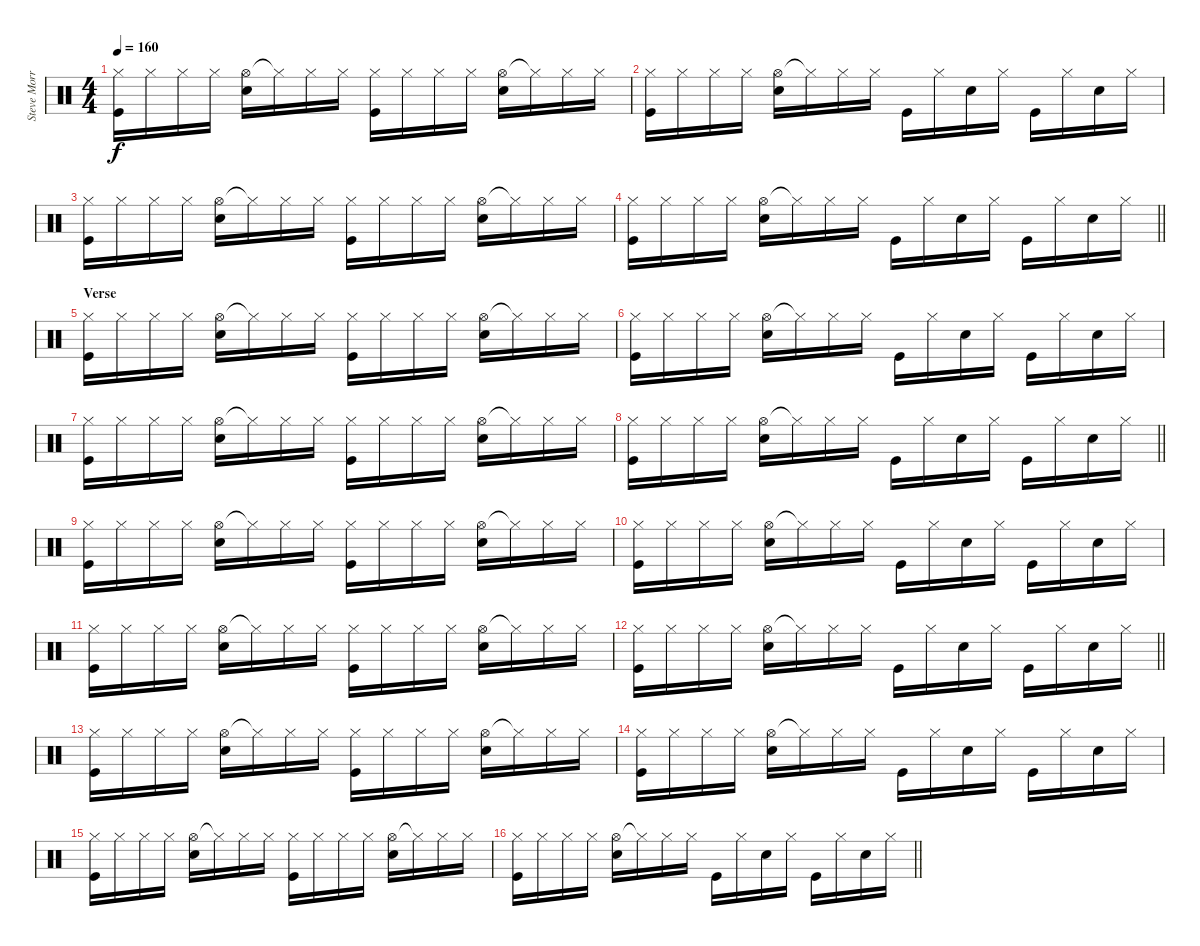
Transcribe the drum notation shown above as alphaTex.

\track ("Steve Morris" "Steve Morr") {instrument percussion}
\staff {score}
\articulation defaults
\ts (4 4)
\tempo 160
\clef neutral
\ks c
("Hi-Hat (closed)" "Kick (hit)").16{dy f} "Hi-Hat (closed)".16 "Hi-Hat (closed)".16 "Hi-Hat (closed)".16 ("Hi-Hat (open)" "Electric Snare (hit)").16 "Hi-Hat (closed)"{t}.16 "Hi-Hat (closed)".16 "Hi-Hat (closed)".16 ("Hi-Hat (closed)" "Kick (hit)").16 "Hi-Hat (closed)".16 "Hi-Hat (closed)".16 "Hi-Hat (closed)".16 ("Hi-Hat (open)" "Electric Snare (hit)").16 "Hi-Hat (closed)"{t}.16 "Hi-Hat (closed)".16 "Hi-Hat (closed)".16 |
("Hi-Hat (closed)" "Kick (hit)").16 "Hi-Hat (closed)".16 "Hi-Hat (closed)".16 "Hi-Hat (closed)".16 ("Hi-Hat (open)" "Electric Snare (hit)").16 "Hi-Hat (closed)"{t}.16 "Hi-Hat (closed)".16 "Hi-Hat (closed)".16 "Kick (hit)".16 "Hi-Hat (closed)".16 "Electric Snare (hit)".16 "Hi-Hat (closed)".16 "Kick (hit)".16 "Hi-Hat (closed)".16 "Electric Snare (hit)".16 "Hi-Hat (closed)".16 |
("Hi-Hat (closed)" "Kick (hit)").16 "Hi-Hat (closed)".16 "Hi-Hat (closed)".16 "Hi-Hat (closed)".16 ("Hi-Hat (open)" "Electric Snare (hit)").16 "Hi-Hat (closed)"{t}.16 "Hi-Hat (closed)".16 "Hi-Hat (closed)".16 ("Hi-Hat (closed)" "Kick (hit)").16 "Hi-Hat (closed)".16 "Hi-Hat (closed)".16 "Hi-Hat (closed)".16 ("Hi-Hat (open)" "Electric Snare (hit)").16 "Hi-Hat (closed)"{t}.16 "Hi-Hat (closed)".16 "Hi-Hat (closed)".16 |
\barLineRight lightlight
("Hi-Hat (closed)" "Kick (hit)").16 "Hi-Hat (closed)".16 "Hi-Hat (closed)".16 "Hi-Hat (closed)".16 ("Hi-Hat (open)" "Electric Snare (hit)").16 "Hi-Hat (closed)"{t}.16 "Hi-Hat (closed)".16 "Hi-Hat (closed)".16 "Kick (hit)".16 "Hi-Hat (closed)".16 "Electric Snare (hit)".16 "Hi-Hat (closed)".16 "Kick (hit)".16 "Hi-Hat (closed)".16 "Electric Snare (hit)".16 "Hi-Hat (closed)".16 |
\section ("" "Verse")
("Hi-Hat (closed)" "Kick (hit)").16 "Hi-Hat (closed)".16 "Hi-Hat (closed)".16 "Hi-Hat (closed)".16 ("Hi-Hat (open)" "Electric Snare (hit)").16 "Hi-Hat (closed)"{t}.16 "Hi-Hat (closed)".16 "Hi-Hat (closed)".16 ("Hi-Hat (closed)" "Kick (hit)").16 "Hi-Hat (closed)".16 "Hi-Hat (closed)".16 "Hi-Hat (closed)".16 ("Hi-Hat (open)" "Electric Snare (hit)").16 "Hi-Hat (closed)"{t}.16 "Hi-Hat (closed)".16 "Hi-Hat (closed)".16 |
("Hi-Hat (closed)" "Kick (hit)").16 "Hi-Hat (closed)".16 "Hi-Hat (closed)".16 "Hi-Hat (closed)".16 ("Hi-Hat (open)" "Electric Snare (hit)").16 "Hi-Hat (closed)"{t}.16 "Hi-Hat (closed)".16 "Hi-Hat (closed)".16 "Kick (hit)".16 "Hi-Hat (closed)".16 "Electric Snare (hit)".16 "Hi-Hat (closed)".16 "Kick (hit)".16 "Hi-Hat (closed)".16 "Electric Snare (hit)".16 "Hi-Hat (closed)".16 |
("Hi-Hat (closed)" "Kick (hit)").16 "Hi-Hat (closed)".16 "Hi-Hat (closed)".16 "Hi-Hat (closed)".16 ("Hi-Hat (open)" "Electric Snare (hit)").16 "Hi-Hat (closed)"{t}.16 "Hi-Hat (closed)".16 "Hi-Hat (closed)".16 ("Hi-Hat (closed)" "Kick (hit)").16 "Hi-Hat (closed)".16 "Hi-Hat (closed)".16 "Hi-Hat (closed)".16 ("Hi-Hat (open)" "Electric Snare (hit)").16 "Hi-Hat (closed)"{t}.16 "Hi-Hat (closed)".16 "Hi-Hat (closed)".16 |
\barLineRight lightlight
("Hi-Hat (closed)" "Kick (hit)").16 "Hi-Hat (closed)".16 "Hi-Hat (closed)".16 "Hi-Hat (closed)".16 ("Hi-Hat (open)" "Electric Snare (hit)").16 "Hi-Hat (closed)"{t}.16 "Hi-Hat (closed)".16 "Hi-Hat (closed)".16 "Kick (hit)".16 "Hi-Hat (closed)".16 "Electric Snare (hit)".16 "Hi-Hat (closed)".16 "Kick (hit)".16 "Hi-Hat (closed)".16 "Electric Snare (hit)".16 "Hi-Hat (closed)".16 |
("Hi-Hat (closed)" "Kick (hit)").16 "Hi-Hat (closed)".16 "Hi-Hat (closed)".16 "Hi-Hat (closed)".16 ("Hi-Hat (open)" "Electric Snare (hit)").16 "Hi-Hat (closed)"{t}.16 "Hi-Hat (closed)".16 "Hi-Hat (closed)".16 ("Hi-Hat (closed)" "Kick (hit)").16 "Hi-Hat (closed)".16 "Hi-Hat (closed)".16 "Hi-Hat (closed)".16 ("Hi-Hat (open)" "Electric Snare (hit)").16 "Hi-Hat (closed)"{t}.16 "Hi-Hat (closed)".16 "Hi-Hat (closed)".16 |
("Hi-Hat (closed)" "Kick (hit)").16 "Hi-Hat (closed)".16 "Hi-Hat (closed)".16 "Hi-Hat (closed)".16 ("Hi-Hat (open)" "Electric Snare (hit)").16 "Hi-Hat (closed)"{t}.16 "Hi-Hat (closed)".16 "Hi-Hat (closed)".16 "Kick (hit)".16 "Hi-Hat (closed)".16 "Electric Snare (hit)".16 "Hi-Hat (closed)".16 "Kick (hit)".16 "Hi-Hat (closed)".16 "Electric Snare (hit)".16 "Hi-Hat (closed)".16 |
("Hi-Hat (closed)" "Kick (hit)").16 "Hi-Hat (closed)".16 "Hi-Hat (closed)".16 "Hi-Hat (closed)".16 ("Hi-Hat (open)" "Electric Snare (hit)").16 "Hi-Hat (closed)"{t}.16 "Hi-Hat (closed)".16 "Hi-Hat (closed)".16 ("Hi-Hat (closed)" "Kick (hit)").16 "Hi-Hat (closed)".16 "Hi-Hat (closed)".16 "Hi-Hat (closed)".16 ("Hi-Hat (open)" "Electric Snare (hit)").16 "Hi-Hat (closed)"{t}.16 "Hi-Hat (closed)".16 "Hi-Hat (closed)".16 |
\barLineRight lightlight
("Hi-Hat (closed)" "Kick (hit)").16 "Hi-Hat (closed)".16 "Hi-Hat (closed)".16 "Hi-Hat (closed)".16 ("Hi-Hat (open)" "Electric Snare (hit)").16 "Hi-Hat (closed)"{t}.16 "Hi-Hat (closed)".16 "Hi-Hat (closed)".16 "Kick (hit)".16 "Hi-Hat (closed)".16 "Electric Snare (hit)".16 "Hi-Hat (closed)".16 "Kick (hit)".16 "Hi-Hat (closed)".16 "Electric Snare (hit)".16 "Hi-Hat (closed)".16 |
("Hi-Hat (closed)" "Kick (hit)").16 "Hi-Hat (closed)".16 "Hi-Hat (closed)".16 "Hi-Hat (closed)".16 ("Hi-Hat (open)" "Electric Snare (hit)").16 "Hi-Hat (closed)"{t}.16 "Hi-Hat (closed)".16 "Hi-Hat (closed)".16 ("Hi-Hat (closed)" "Kick (hit)").16 "Hi-Hat (closed)".16 "Hi-Hat (closed)".16 "Hi-Hat (closed)".16 ("Hi-Hat (open)" "Electric Snare (hit)").16 "Hi-Hat (closed)"{t}.16 "Hi-Hat (closed)".16 "Hi-Hat (closed)".16 |
("Hi-Hat (closed)" "Kick (hit)").16 "Hi-Hat (closed)".16 "Hi-Hat (closed)".16 "Hi-Hat (closed)".16 ("Hi-Hat (open)" "Electric Snare (hit)").16 "Hi-Hat (closed)"{t}.16 "Hi-Hat (closed)".16 "Hi-Hat (closed)".16 "Kick (hit)".16 "Hi-Hat (closed)".16 "Electric Snare (hit)".16 "Hi-Hat (closed)".16 "Kick (hit)".16 "Hi-Hat (closed)".16 "Electric Snare (hit)".16 "Hi-Hat (closed)".16 |
("Hi-Hat (closed)" "Kick (hit)").16 "Hi-Hat (closed)".16 "Hi-Hat (closed)".16 "Hi-Hat (closed)".16 ("Hi-Hat (open)" "Electric Snare (hit)").16 "Hi-Hat (closed)"{t}.16 "Hi-Hat (closed)".16 "Hi-Hat (closed)".16 ("Hi-Hat (closed)" "Kick (hit)").16 "Hi-Hat (closed)".16 "Hi-Hat (closed)".16 "Hi-Hat (closed)".16 ("Hi-Hat (open)" "Electric Snare (hit)").16 "Hi-Hat (closed)"{t}.16 "Hi-Hat (closed)".16 "Hi-Hat (closed)".16 |
\barLineRight lightlight
("Hi-Hat (closed)" "Kick (hit)").16 "Hi-Hat (closed)".16 "Hi-Hat (closed)".16 "Hi-Hat (closed)".16 ("Hi-Hat (open)" "Electric Snare (hit)").16 "Hi-Hat (closed)"{t}.16 "Hi-Hat (closed)".16 "Hi-Hat (closed)".16 "Kick (hit)".16 "Hi-Hat (closed)".16 "Electric Snare (hit)".16 "Hi-Hat (closed)".16 "Kick (hit)".16 "Hi-Hat (closed)".16 "Electric Snare (hit)".16 "Hi-Hat (closed)".16
